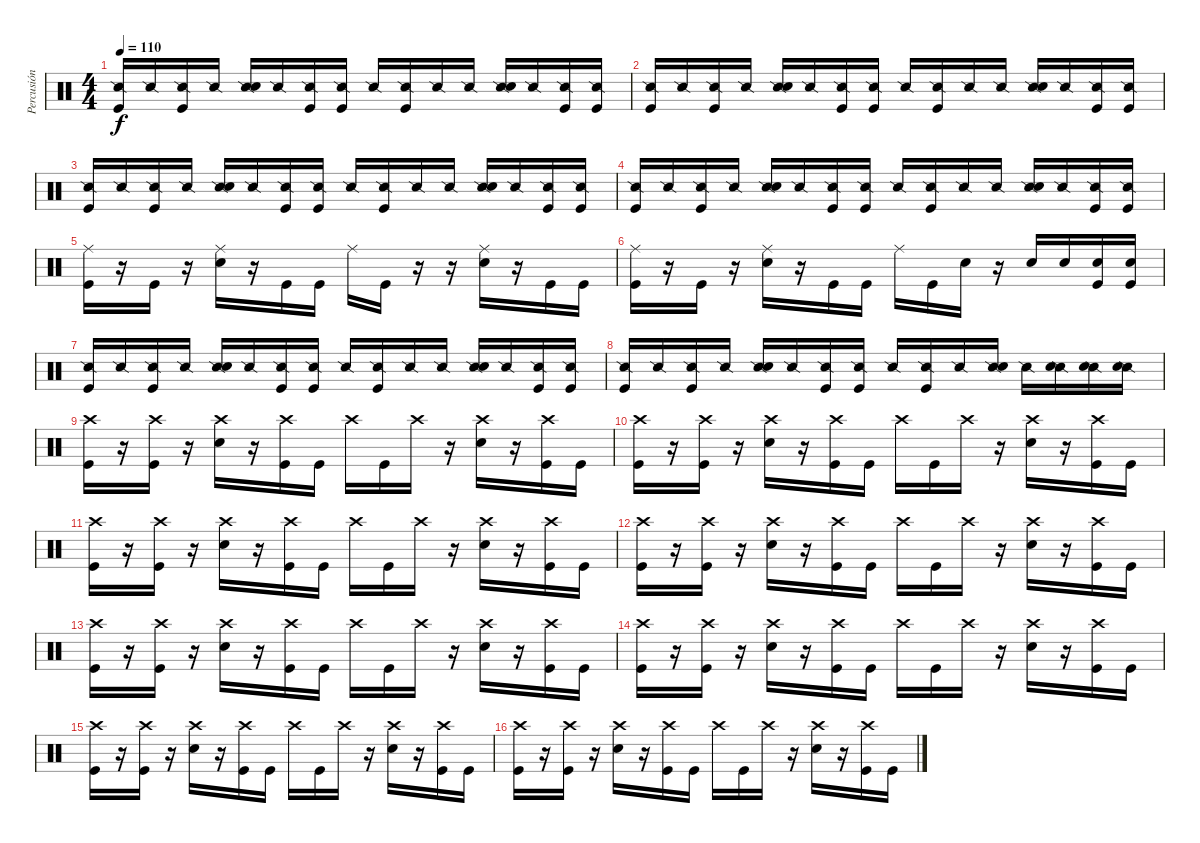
\track ("Percusión" "Percusión") {instrument percussion}
\staff {score}
\articulation defaults
\ts (4 4)
\tempo 110
\clef neutral
\ks c
("Snare (side stick) 2" "Kick (hit)").16{dy f} "Snare (side stick) 2".16 ("Snare (side stick) 2" "Kick (hit)").16 "Snare (side stick) 2".16 ("Snare (side stick) 2" "Electric Snare (hit)").16 "Snare (side stick) 2".16 ("Snare (side stick) 2" "Kick (hit)").16 ("Snare (side stick) 2" "Kick (hit)").16 "Snare (side stick) 2".16 ("Snare (side stick) 2" "Kick (hit)").16 "Snare (side stick) 2".16 "Snare (side stick) 2".16 ("Snare (side stick) 2" "Electric Snare (hit)").16 "Snare (side stick) 2".16 ("Snare (side stick) 2" "Kick (hit)").16 ("Snare (side stick) 2" "Kick (hit)").16 |
("Snare (side stick) 2" "Kick (hit)").16 "Snare (side stick) 2".16 ("Snare (side stick) 2" "Kick (hit)").16 "Snare (side stick) 2".16 ("Snare (side stick) 2" "Electric Snare (hit)").16 "Snare (side stick) 2".16 ("Snare (side stick) 2" "Kick (hit)").16 ("Snare (side stick) 2" "Kick (hit)").16 "Snare (side stick) 2".16 ("Snare (side stick) 2" "Kick (hit)").16 "Snare (side stick) 2".16 "Snare (side stick) 2".16 ("Snare (side stick) 2" "Electric Snare (hit)").16 "Snare (side stick) 2".16 ("Snare (side stick) 2" "Kick (hit)").16 ("Snare (side stick) 2" "Kick (hit)").16 |
("Snare (side stick) 2" "Kick (hit)").16 "Snare (side stick) 2".16 ("Snare (side stick) 2" "Kick (hit)").16 "Snare (side stick) 2".16 ("Snare (side stick) 2" "Electric Snare (hit)").16 "Snare (side stick) 2".16 ("Snare (side stick) 2" "Kick (hit)").16 ("Snare (side stick) 2" "Kick (hit)").16 "Snare (side stick) 2".16 ("Snare (side stick) 2" "Kick (hit)").16 "Snare (side stick) 2".16 "Snare (side stick) 2".16 ("Snare (side stick) 2" "Electric Snare (hit)").16 "Snare (side stick) 2".16 ("Snare (side stick) 2" "Kick (hit)").16 ("Snare (side stick) 2" "Kick (hit)").16 |
("Snare (side stick) 2" "Kick (hit)").16 "Snare (side stick) 2".16 ("Snare (side stick) 2" "Kick (hit)").16 "Snare (side stick) 2".16 ("Snare (side stick) 2" "Electric Snare (hit)").16 "Snare (side stick) 2".16 ("Snare (side stick) 2" "Kick (hit)").16 ("Snare (side stick) 2" "Kick (hit)").16 "Snare (side stick) 2".16 ("Snare (side stick) 2" "Kick (hit)").16 "Snare (side stick) 2".16 "Snare (side stick) 2".16 ("Snare (side stick) 2" "Electric Snare (hit)").16 "Snare (side stick) 2".16 ("Snare (side stick) 2" "Kick (hit)").16 ("Snare (side stick) 2" "Kick (hit)").16 |
("Ride (middle)" "Kick (hit)").16 r.16 "Kick (hit)".16 r.16 ("Ride (middle)" "Electric Snare (hit)").16 r.16 "Kick (hit)".16 "Kick (hit)".16 "Ride (middle)".16 "Kick (hit)".16 r.16 r.16 ("Ride (middle)" "Electric Snare (hit)").16 r.16 "Kick (hit)".16 "Kick (hit)".16 |
("Ride (middle)" "Kick (hit)").16 r.16 "Kick (hit)".16 r.16 ("Ride (middle)" "Electric Snare (hit)").16 r.16 "Kick (hit)".16 "Kick (hit)".16 "Ride (middle)".16 "Kick (hit)".16 "Electric Snare (hit)".16 r.16 "Electric Snare (hit)".16 "Electric Snare (hit)".16 ("Electric Snare (hit)" "Kick (hit)").16 ("Electric Snare (hit)" "Kick (hit)").16 |
("Snare (side stick) 2" "Kick (hit)").16 "Snare (side stick) 2".16 ("Snare (side stick) 2" "Kick (hit)").16 "Snare (side stick) 2".16 ("Snare (side stick) 2" "Electric Snare (hit)").16 "Snare (side stick) 2".16 ("Snare (side stick) 2" "Kick (hit)").16 ("Snare (side stick) 2" "Kick (hit)").16 "Snare (side stick) 2".16 ("Snare (side stick) 2" "Kick (hit)").16 "Snare (side stick) 2".16 "Snare (side stick) 2".16 ("Snare (side stick) 2" "Electric Snare (hit)").16 "Snare (side stick) 2".16 ("Snare (side stick) 2" "Kick (hit)").16 ("Snare (side stick) 2" "Kick (hit)").16 |
("Snare (side stick) 2" "Kick (hit)").16 "Snare (side stick) 2".16 ("Snare (side stick) 2" "Kick (hit)").16 "Snare (side stick) 2".16 ("Snare (side stick) 2" "Electric Snare (hit)").16 "Snare (side stick) 2".16 ("Snare (side stick) 2" "Kick (hit)").16 ("Snare (side stick) 2" "Kick (hit)").16 "Snare (side stick) 2".16 ("Snare (side stick) 2" "Kick (hit)").16 "Snare (side stick) 2".16 ("Snare (side stick) 2" "Electric Snare (hit)").16 "Snare (side stick) 2".16 ("Snare (side stick) 2" "Electric Snare (hit)").16 ("Snare (side stick) 2" "Electric Snare (hit)").16 ("Snare (side stick) 2" "Electric Snare (hit)").16 |
("Crash high (hit)" "Kick (hit)").16 r.16 ("Crash high (hit)" "Kick (hit)").16 r.16 ("Crash high (hit)" "Electric Snare (hit)").16 r.16 ("Crash high (hit)" "Kick (hit)").16 "Kick (hit)".16 "Crash high (hit)".16 "Kick (hit)".16 "Crash high (hit)".16 r.16 ("Crash high (hit)" "Electric Snare (hit)").16 r.16 ("Crash high (hit)" "Kick (hit)").16 "Kick (hit)".16 |
("Crash high (hit)" "Kick (hit)").16 r.16 ("Crash high (hit)" "Kick (hit)").16 r.16 ("Crash high (hit)" "Electric Snare (hit)").16 r.16 ("Crash high (hit)" "Kick (hit)").16 "Kick (hit)".16 "Crash high (hit)".16 "Kick (hit)".16 "Crash high (hit)".16 r.16 ("Crash high (hit)" "Electric Snare (hit)").16 r.16 ("Crash high (hit)" "Kick (hit)").16 "Kick (hit)".16 |
("Crash high (hit)" "Kick (hit)").16 r.16 ("Crash high (hit)" "Kick (hit)").16 r.16 ("Crash high (hit)" "Electric Snare (hit)").16 r.16 ("Crash high (hit)" "Kick (hit)").16 "Kick (hit)".16 "Crash high (hit)".16 "Kick (hit)".16 "Crash high (hit)".16 r.16 ("Crash high (hit)" "Electric Snare (hit)").16 r.16 ("Crash high (hit)" "Kick (hit)").16 "Kick (hit)".16 |
("Crash high (hit)" "Kick (hit)").16 r.16 ("Crash high (hit)" "Kick (hit)").16 r.16 ("Crash high (hit)" "Electric Snare (hit)").16 r.16 ("Crash high (hit)" "Kick (hit)").16 "Kick (hit)".16 "Crash high (hit)".16 "Kick (hit)".16 "Crash high (hit)".16 r.16 ("Crash high (hit)" "Electric Snare (hit)").16 r.16 ("Crash high (hit)" "Kick (hit)").16 "Kick (hit)".16 |
("Crash high (hit)" "Kick (hit)").16 r.16 ("Crash high (hit)" "Kick (hit)").16 r.16 ("Crash high (hit)" "Electric Snare (hit)").16 r.16 ("Crash high (hit)" "Kick (hit)").16 "Kick (hit)".16 "Crash high (hit)".16 "Kick (hit)".16 "Crash high (hit)".16 r.16 ("Crash high (hit)" "Electric Snare (hit)").16 r.16 ("Crash high (hit)" "Kick (hit)").16 "Kick (hit)".16 |
("Crash high (hit)" "Kick (hit)").16 r.16 ("Crash high (hit)" "Kick (hit)").16 r.16 ("Crash high (hit)" "Electric Snare (hit)").16 r.16 ("Crash high (hit)" "Kick (hit)").16 "Kick (hit)".16 "Crash high (hit)".16 "Kick (hit)".16 "Crash high (hit)".16 r.16 ("Crash high (hit)" "Electric Snare (hit)").16 r.16 ("Crash high (hit)" "Kick (hit)").16 "Kick (hit)".16 |
("Crash high (hit)" "Kick (hit)").16 r.16 ("Crash high (hit)" "Kick (hit)").16 r.16 ("Crash high (hit)" "Electric Snare (hit)").16 r.16 ("Crash high (hit)" "Kick (hit)").16 "Kick (hit)".16 "Crash high (hit)".16 "Kick (hit)".16 "Crash high (hit)".16 r.16 ("Crash high (hit)" "Electric Snare (hit)").16 r.16 ("Crash high (hit)" "Kick (hit)").16 "Kick (hit)".16 |
("Crash high (hit)" "Kick (hit)").16 r.16 ("Crash high (hit)" "Kick (hit)").16 r.16 ("Crash high (hit)" "Electric Snare (hit)").16 r.16 ("Crash high (hit)" "Kick (hit)").16 "Kick (hit)".16 "Crash high (hit)".16 "Kick (hit)".16 "Crash high (hit)".16 r.16 ("Crash high (hit)" "Electric Snare (hit)").16 r.16 ("Crash high (hit)" "Kick (hit)").16 "Kick (hit)".16
